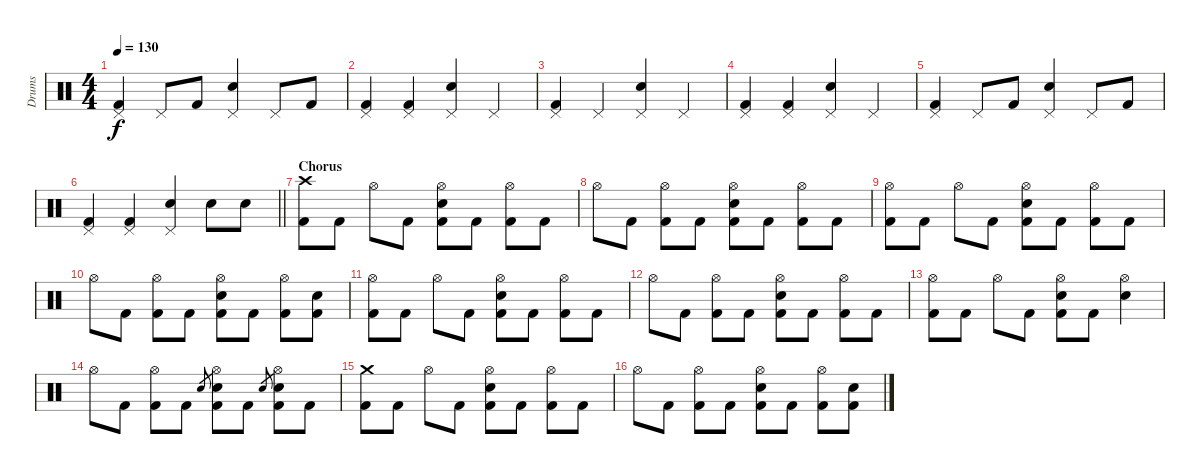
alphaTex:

\track ("Drums" "Drums") {instrument percussion}
\staff {score}
\articulation defaults
\ts (4 4)
\tempo 130
\clef neutral
\ks c
("Pedal Hi-Hat (hit)" "Kick (hit) 2").4{dy f} "Pedal Hi-Hat (hit)".8 "Kick (hit) 2".8 ("Pedal Hi-Hat (hit)" "Electric Snare (hit)").4 "Pedal Hi-Hat (hit)".8 "Kick (hit) 2".8 |
("Pedal Hi-Hat (hit)" "Kick (hit) 2").4 ("Pedal Hi-Hat (hit)" "Kick (hit) 2").4 ("Pedal Hi-Hat (hit)" "Electric Snare (hit)").4 "Pedal Hi-Hat (hit)".4 |
("Pedal Hi-Hat (hit)" "Kick (hit) 2").4 "Pedal Hi-Hat (hit)".4 ("Pedal Hi-Hat (hit)" "Electric Snare (hit)").4 "Pedal Hi-Hat (hit)".4 |
("Pedal Hi-Hat (hit)" "Kick (hit) 2").4 ("Pedal Hi-Hat (hit)" "Kick (hit) 2").4 ("Pedal Hi-Hat (hit)" "Electric Snare (hit)").4 "Pedal Hi-Hat (hit)".4 |
("Pedal Hi-Hat (hit)" "Kick (hit) 2").4 "Pedal Hi-Hat (hit)".8 "Kick (hit) 2".8 ("Pedal Hi-Hat (hit)" "Electric Snare (hit)").4 "Pedal Hi-Hat (hit)".8 "Kick (hit) 2".8 |
\barLineRight lightlight
("Pedal Hi-Hat (hit)" "Kick (hit) 2").4 ("Pedal Hi-Hat (hit)" "Kick (hit) 2").4 ("Pedal Hi-Hat (hit)" "Electric Snare (hit)").4 "Electric Snare (hit)".8 "Electric Snare (hit)".8 |
\section ("" "Chorus")
("Crash high (hit)" "Kick (hit) 2").8 "Kick (hit) 2".8 "Hi-Hat (open)".8 "Kick (hit) 2".8 ("Hi-Hat (open)" "Electric Snare (hit)" "Kick (hit) 2").8 "Kick (hit) 2".8 ("Hi-Hat (open)" "Kick (hit) 2").8 "Kick (hit) 2".8 |
"Hi-Hat (open)".8 "Kick (hit) 2".8 ("Hi-Hat (open)" "Kick (hit) 2").8 "Kick (hit) 2".8 ("Hi-Hat (open)" "Electric Snare (hit)" "Kick (hit) 2").8 "Kick (hit) 2".8 ("Hi-Hat (open)" "Kick (hit) 2").8 "Kick (hit) 2".8 |
("Hi-Hat (open)" "Kick (hit) 2").8 "Kick (hit) 2".8 "Hi-Hat (open)".8 "Kick (hit) 2".8 ("Hi-Hat (open)" "Electric Snare (hit)" "Kick (hit) 2").8 "Kick (hit) 2".8 ("Hi-Hat (open)" "Kick (hit) 2").8 "Kick (hit) 2".8 |
"Hi-Hat (open)".8 "Kick (hit) 2".8 ("Hi-Hat (open)" "Kick (hit) 2").8 "Kick (hit) 2".8 ("Hi-Hat (open)" "Electric Snare (hit)" "Kick (hit) 2").8 "Kick (hit) 2".8 ("Hi-Hat (open)" "Kick (hit) 2").8 ("Electric Snare (hit)" "Kick (hit) 2").8 |
("Hi-Hat (open)" "Kick (hit) 2").8 "Kick (hit) 2".8 "Hi-Hat (open)".8 "Kick (hit) 2".8 ("Hi-Hat (open)" "Electric Snare (hit)" "Kick (hit) 2").8 "Kick (hit) 2".8 ("Hi-Hat (open)" "Kick (hit) 2").8 "Kick (hit) 2".8 |
"Hi-Hat (open)".8 "Kick (hit) 2".8 ("Hi-Hat (open)" "Kick (hit) 2").8 "Kick (hit) 2".8 ("Hi-Hat (open)" "Electric Snare (hit)" "Kick (hit) 2").8 "Kick (hit) 2".8 ("Hi-Hat (open)" "Kick (hit) 2").8 "Kick (hit) 2".8 |
("Hi-Hat (open)" "Kick (hit) 2").8 "Kick (hit) 2".8 "Hi-Hat (open)".8 "Kick (hit) 2".8 ("Hi-Hat (open)" "Electric Snare (hit)" "Kick (hit) 2").8 "Kick (hit) 2".8 ("Hi-Hat (open)" "Electric Snare (hit)").4 |
"Hi-Hat (open)".8 "Kick (hit) 2".8 ("Hi-Hat (open)" "Kick (hit) 2").8 "Kick (hit) 2".8 "Electric Snare (hit)".8{gr} ("Hi-Hat (open)" "Electric Snare (hit)" "Kick (hit) 2").8 "Kick (hit) 2".8 "Electric Snare (hit)".8{gr} ("Hi-Hat (open)" "Electric Snare (hit)" "Kick (hit) 2").8 "Kick (hit) 2".8 |
("Crash medium (hit)" "Kick (hit) 2").8 "Kick (hit) 2".8 "Hi-Hat (open)".8 "Kick (hit) 2".8 ("Hi-Hat (open)" "Electric Snare (hit)" "Kick (hit) 2").8 "Kick (hit) 2".8 ("Hi-Hat (open)" "Kick (hit) 2").8 "Kick (hit) 2".8 |
"Hi-Hat (open)".8 "Kick (hit) 2".8 ("Hi-Hat (open)" "Kick (hit) 2").8 "Kick (hit) 2".8 ("Hi-Hat (open)" "Electric Snare (hit)" "Kick (hit) 2").8 "Kick (hit) 2".8 ("Hi-Hat (open)" "Kick (hit) 2").8 ("Electric Snare (hit)" "Kick (hit) 2").8
